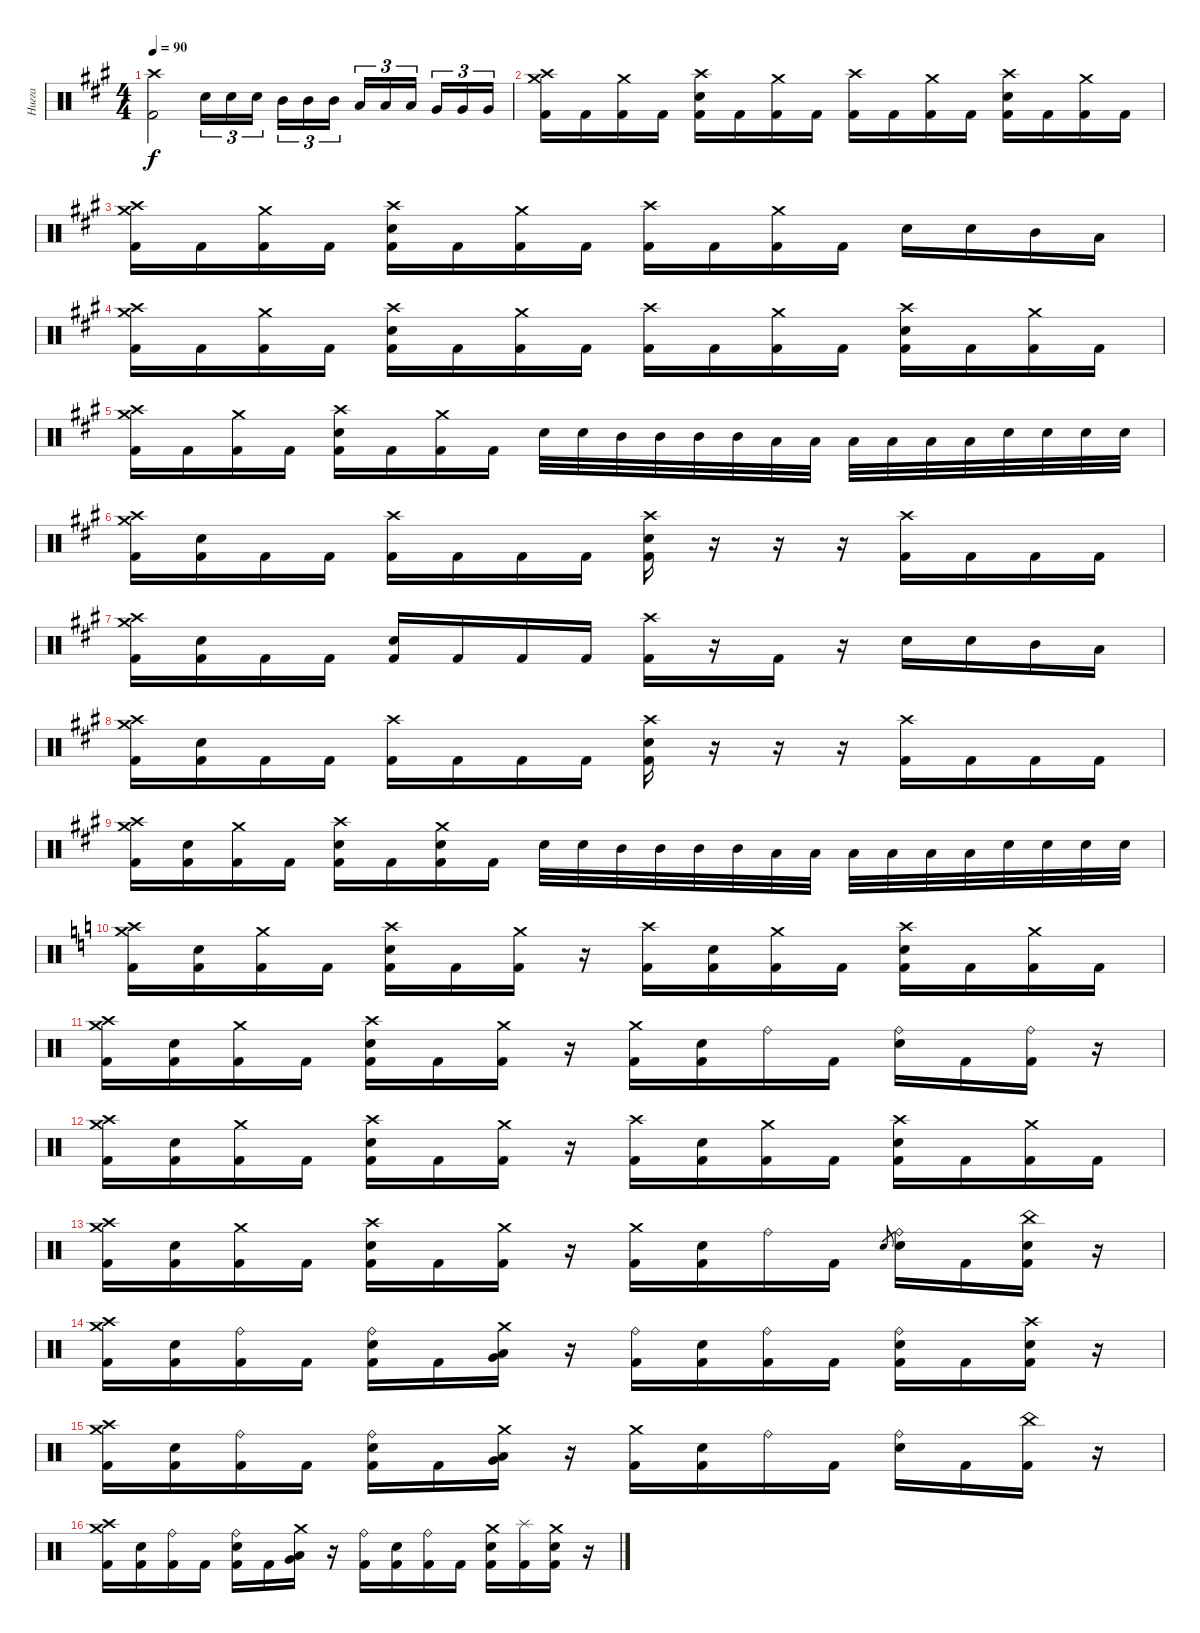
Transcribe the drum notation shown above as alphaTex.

\track ("Нигга" "Нигга") {instrument percussion}
\staff
\articulation defaults
\ts (4 4)
\tempo 90
\clef neutral
\ks f#minor
("Crash high (hit)" "Kick (hit) 2").2{dy f} "Electric Snare (hit)".16{tu (3 2)} "Electric Snare (hit)".16{tu (3 2)} "Electric Snare (hit)".16{tu (3 2) beam splitsecondary} "Mid Tom (hit)".16{tu (3 2)} "Mid Tom (hit)".16{tu (3 2)} "Mid Tom (hit)".16{tu (3 2)} "Low Tom (hit)".16{tu (3 2)} "Low Tom (hit)".16{tu (3 2)} "Low Tom (hit)".16{tu (3 2) beam splitsecondary} "Very Low Tom (hit)".16{tu (3 2)} "Very Low Tom (hit)".16{tu (3 2)} "Very Low Tom (hit)".16{tu (3 2)} |
("Crash high (hit)" "Crash medium (hit)" "Kick (hit) 2").16 "Kick (hit) 2".16 ("Crash medium (hit)" "Kick (hit) 2").16 "Kick (hit) 2".16 ("Crash high (hit)" "Electric Snare (hit)" "Kick (hit) 2").16 "Kick (hit) 2".16 ("Crash medium (hit)" "Kick (hit) 2").16 "Kick (hit) 2".16 ("Crash high (hit)" "Kick (hit) 2").16 "Kick (hit) 2".16 ("Crash medium (hit)" "Kick (hit) 2").16 "Kick (hit) 2".16 ("Crash high (hit)" "Electric Snare (hit)" "Kick (hit) 2").16 "Kick (hit) 2".16 ("Crash medium (hit)" "Kick (hit) 2").16 "Kick (hit) 2".16 |
("Crash high (hit)" "Crash medium (hit)" "Kick (hit) 2").16 "Kick (hit) 2".16 ("Crash medium (hit)" "Kick (hit) 2").16 "Kick (hit) 2".16 ("Crash high (hit)" "Electric Snare (hit)" "Kick (hit) 2").16 "Kick (hit) 2".16 ("Crash medium (hit)" "Kick (hit) 2").16 "Kick (hit) 2".16 ("Crash high (hit)" "Kick (hit) 2").16 "Kick (hit) 2".16 ("Crash medium (hit)" "Kick (hit) 2").16 "Kick (hit) 2".16 "Electric Snare (hit)".16 "Electric Snare (hit)".16 "Mid Tom (hit)".16 "Low Tom (hit)".16 |
("Crash high (hit)" "Crash medium (hit)" "Kick (hit) 2").16 "Kick (hit) 2".16 ("Crash medium (hit)" "Kick (hit) 2").16 "Kick (hit) 2".16 ("Crash high (hit)" "Electric Snare (hit)" "Kick (hit) 2").16 "Kick (hit) 2".16 ("Crash medium (hit)" "Kick (hit) 2").16 "Kick (hit) 2".16 ("Crash high (hit)" "Kick (hit) 2").16 "Kick (hit) 2".16 ("Crash medium (hit)" "Kick (hit) 2").16 "Kick (hit) 2".16 ("Crash high (hit)" "Electric Snare (hit)" "Kick (hit) 2").16 "Kick (hit) 2".16 ("Crash medium (hit)" "Kick (hit) 2").16 "Kick (hit) 2".16 |
("Crash high (hit)" "Crash medium (hit)" "Kick (hit) 2").16 "Kick (hit) 2".16 ("Crash medium (hit)" "Kick (hit) 2").16 "Kick (hit) 2".16 ("Crash high (hit)" "Electric Snare (hit)" "Kick (hit) 2").16 "Kick (hit) 2".16 ("Crash medium (hit)" "Kick (hit) 2").16 "Kick (hit) 2".16 "Electric Snare (hit)".32 "Electric Snare (hit)".32 "Mid Tom (hit)".32 "Mid Tom (hit)".32 "Mid Tom (hit)".32 "Mid Tom (hit)".32 "Low Tom (hit)".32 "Low Tom (hit)".32 "Low Tom (hit)".32 "Low Tom (hit)".32 "Low Tom (hit)".32 "Low Tom (hit)".32 "Electric Snare (hit)".32 "Electric Snare (hit)".32 "Electric Snare (hit)".32 "Electric Snare (hit)".32 |
("Crash high (hit)" "Crash medium (hit)" "Kick (hit) 2").16 ("Electric Snare (hit)" "Kick (hit) 2").16 "Kick (hit) 2".16 "Kick (hit) 2".16 ("Crash high (hit)" "Kick (hit) 2").16 "Kick (hit) 2".16 "Kick (hit) 2".16 "Kick (hit) 2".16 ("Crash high (hit)" "Electric Snare (hit)" "Kick (hit) 2").16 r.16 r.16 r.16 ("Crash high (hit)" "Kick (hit) 2").16 "Kick (hit) 2".16 "Kick (hit) 2".16 "Kick (hit) 2".16 |
("Crash high (hit)" "Crash medium (hit)" "Kick (hit) 2").16 ("Electric Snare (hit)" "Kick (hit) 2").16 "Kick (hit) 2".16 "Kick (hit) 2".16 ("Electric Snare (hit)" "Kick (hit) 2").16 "Kick (hit) 2".16 "Kick (hit) 2".16 "Kick (hit) 2".16 ("Crash high (hit)" "Kick (hit) 2").16 r.16 "Kick (hit) 2".16 r.16 "Electric Snare (hit)".16 "Electric Snare (hit)".16 "Mid Tom (hit)".16 "Low Tom (hit)".16 |
("Crash high (hit)" "Crash medium (hit)" "Kick (hit) 2").16 ("Electric Snare (hit)" "Kick (hit) 2").16 "Kick (hit) 2".16 "Kick (hit) 2".16 ("Crash high (hit)" "Kick (hit) 2").16 "Kick (hit) 2".16 "Kick (hit) 2".16 "Kick (hit) 2".16 ("Crash high (hit)" "Electric Snare (hit)" "Kick (hit) 2").16 r.16 r.16 r.16 ("Crash high (hit)" "Kick (hit) 2").16 "Kick (hit) 2".16 "Kick (hit) 2".16 "Kick (hit) 2".16 |
("Crash high (hit)" "Crash medium (hit)" "Kick (hit) 2").16 ("Electric Snare (hit)" "Kick (hit) 2").16 ("Crash medium (hit)" "Kick (hit) 2").16 "Kick (hit) 2".16 ("Crash high (hit)" "Electric Snare (hit)" "Kick (hit) 2").16 "Kick (hit) 2".16 ("Crash medium (hit)" "Electric Snare (hit)" "Kick (hit) 2").16 "Kick (hit) 2".16 "Electric Snare (hit)".32 "Electric Snare (hit)".32 "Mid Tom (hit)".32 "Mid Tom (hit)".32 "Mid Tom (hit)".32 "Mid Tom (hit)".32 "Low Tom (hit)".32 "Low Tom (hit)".32 "Low Tom (hit)".32 "Low Tom (hit)".32 "Low Tom (hit)".32 "Low Tom (hit)".32 "Electric Snare (hit)".32 "Electric Snare (hit)".32 "Electric Snare (hit)".32 "Electric Snare (hit)".32 |
\ks c
("Crash high (hit)" "Crash medium (hit)" "Kick (hit) 2").16 ("Electric Snare (hit)" "Kick (hit) 2").16 ("Crash medium (hit)" "Kick (hit) 2").16 "Kick (hit) 2".16 ("Crash high (hit)" "Electric Snare (hit)" "Kick (hit) 2").16 "Kick (hit) 2".16 ("Crash medium (hit)" "Kick (hit) 2").16 r.16 ("Crash high (hit)" "Kick (hit) 2").16 ("Electric Snare (hit)" "Kick (hit) 2").16 ("Crash medium (hit)" "Kick (hit) 2").16 "Kick (hit) 2".16 ("Crash high (hit)" "Electric Snare (hit)" "Kick (hit) 2").16 "Kick (hit) 2".16 ("Crash medium (hit)" "Kick (hit) 2").16 "Kick (hit) 2".16 |
("Crash high (hit)" "Crash medium (hit)" "Kick (hit) 2").16 ("Electric Snare (hit)" "Kick (hit) 2").16 ("Crash medium (hit)" "Kick (hit) 2").16 "Kick (hit) 2".16 ("Crash high (hit)" "Electric Snare (hit)" "Kick (hit) 2").16 "Kick (hit) 2".16 ("Crash medium (hit)" "Kick (hit) 2").16 r.16 ("Crash medium (hit)" "Kick (hit) 2").16 ("Electric Snare (hit)" "Kick (hit) 2").16 "Ride (bell)".16 "Kick (hit) 2".16 ("Ride (bell)" "Electric Snare (hit)").16 "Kick (hit) 2".16 ("Ride (bell)" "Kick (hit) 2").16 r.16 |
("Crash high (hit)" "Crash medium (hit)" "Kick (hit) 2").16 ("Electric Snare (hit)" "Kick (hit) 2").16 ("Crash medium (hit)" "Kick (hit) 2").16 "Kick (hit) 2".16 ("Crash high (hit)" "Electric Snare (hit)" "Kick (hit) 2").16 "Kick (hit) 2".16 ("Crash medium (hit)" "Kick (hit) 2").16 r.16 ("Crash high (hit)" "Kick (hit) 2").16 ("Electric Snare (hit)" "Kick (hit) 2").16 ("Crash medium (hit)" "Kick (hit) 2").16 "Kick (hit) 2".16 ("Crash high (hit)" "Electric Snare (hit)" "Kick (hit) 2").16 "Kick (hit) 2".16 ("Crash medium (hit)" "Kick (hit) 2").16 "Kick (hit) 2".16 |
("Crash high (hit)" "Crash medium (hit)" "Kick (hit) 2").16 ("Electric Snare (hit)" "Kick (hit) 2").16 ("Crash medium (hit)" "Kick (hit) 2").16 "Kick (hit) 2".16 ("Crash high (hit)" "Electric Snare (hit)" "Kick (hit) 2").16 "Kick (hit) 2".16 ("Crash medium (hit)" "Kick (hit) 2").16 r.16 ("Crash medium (hit)" "Kick (hit) 2").16 ("Electric Snare (hit)" "Kick (hit) 2").16 "Ride (bell)".16 "Kick (hit) 2".16 "Electric Snare (hit)".8{gr} ("Ride (bell)" "Electric Snare (hit)").16 "Kick (hit) 2".16 ("China (hit)" "Electric Snare (hit)" "Kick (hit) 2").16 r.16 |
("Crash high (hit)" "Crash medium (hit)" "Kick (hit) 2").16 ("Electric Snare (hit)" "Kick (hit) 2").16 ("Ride (bell)" "Kick (hit) 2").16 "Kick (hit) 2".16 ("Ride (bell)" "Electric Snare (hit)" "Kick (hit) 2").16 "Kick (hit) 2".16 ("Crash medium (hit)" "Very Low Tom (hit)" "Low Tom (hit)").16 r.16 ("Ride (bell)" "Kick (hit) 2").16 ("Electric Snare (hit)" "Kick (hit) 2").16 ("Ride (bell)" "Kick (hit) 2").16 "Kick (hit) 2".16 ("Ride (bell)" "Electric Snare (hit)" "Kick (hit) 2").16 "Kick (hit) 2".16 ("Crash high (hit)" "Electric Snare (hit)" "Kick (hit) 2").16 r.16 |
("Crash high (hit)" "Crash medium (hit)" "Kick (hit) 2").16 ("Electric Snare (hit)" "Kick (hit) 2").16 ("Ride (bell)" "Kick (hit) 2").16 "Kick (hit) 2".16 ("Ride (bell)" "Electric Snare (hit)" "Kick (hit) 2").16 "Kick (hit) 2".16 ("Crash medium (hit)" "Very Low Tom (hit)" "Low Tom (hit)").16 r.16 ("Crash medium (hit)" "Kick (hit) 2").16 ("Electric Snare (hit)" "Kick (hit) 2").16 "Ride (bell)".16 "Kick (hit) 2".16 ("Ride (bell)" "Electric Snare (hit)").16 "Kick (hit) 2".16 ("China (hit)" "Kick (hit) 2").16 r.16 |
("Crash high (hit)" "Crash medium (hit)" "Kick (hit) 2").16 ("Electric Snare (hit)" "Kick (hit) 2").16 ("Ride (bell)" "Kick (hit) 2").16 "Kick (hit) 2".16 ("Ride (bell)" "Electric Snare (hit)" "Kick (hit) 2").16 "Kick (hit) 2".16 ("Crash medium (hit)" "Very Low Tom (hit)" "Low Tom (hit)").16 r.16 ("Ride (bell)" "Kick (hit) 2").16 ("Electric Snare (hit)" "Kick (hit) 2").16 ("Ride (bell)" "Kick (hit) 2").16 "Kick (hit) 2".16 ("Crash medium (hit)" "Electric Snare (hit)" "Kick (hit) 2").16 ("Splash (hit)" "Kick (hit) 2").16 ("Crash medium (hit)" "Electric Snare (hit)" "Kick (hit) 2").16 r.16
